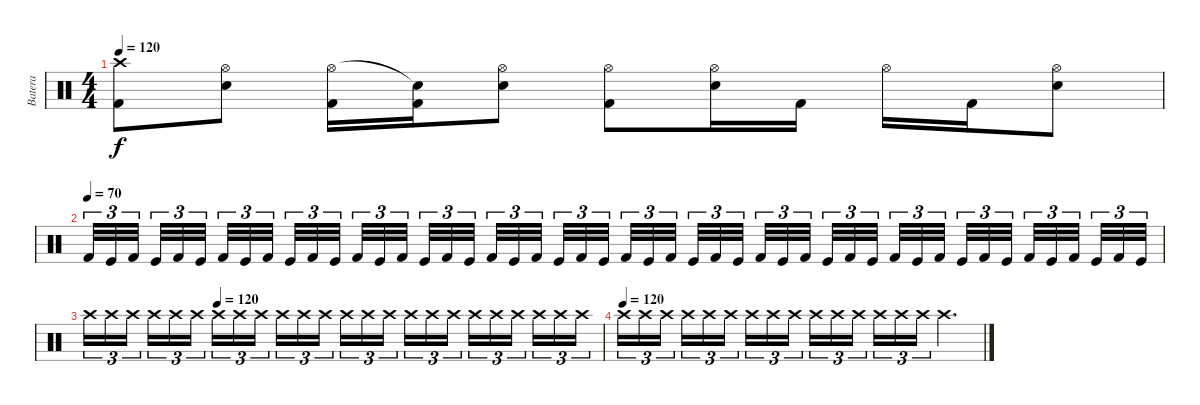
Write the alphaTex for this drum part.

\track ("Batera" "Batera") {instrument percussion}
\staff {score}
\articulation defaults
\ts (4 4)
\tempo 120
\clef neutral
\ks c
("Crash high (hit)" "Kick (hit) 2").8{dy f} ("Hi-Hat (open)" "Electric Snare (hit)").8 ("Hi-Hat (open)" "Kick (hit) 2").16 ("Snare (hit)"{t} "Kick (hit) 2").16 ("Hi-Hat (open)" "Electric Snare (hit)").8 ("Hi-Hat (open)" "Kick (hit) 2").8 ("Hi-Hat (open)" "Electric Snare (hit)").16 "Kick (hit) 2".16 "Hi-Hat (open)".16 "Kick (hit) 2".16 ("Hi-Hat (open)" "Electric Snare (hit)").8 |
\tempo (70)
"Kick (hit) 2".32{tu (3 2)} "Kick (hit)".32{tu (3 2)} "Kick (hit) 2".32{tu (3 2) beam splitsecondary} "Kick (hit)".32{tu (3 2)} "Kick (hit) 2".32{tu (3 2)} "Kick (hit)".32{tu (3 2) beam splitsecondary} "Kick (hit) 2".32{tu (3 2)} "Kick (hit)".32{tu (3 2)} "Kick (hit) 2".32{tu (3 2) beam splitsecondary} "Kick (hit)".32{tu (3 2)} "Kick (hit) 2".32{tu (3 2)} "Kick (hit)".32{tu (3 2)} "Kick (hit) 2".32{tu (3 2)} "Kick (hit)".32{tu (3 2)} "Kick (hit) 2".32{tu (3 2) beam splitsecondary} "Kick (hit)".32{tu (3 2)} "Kick (hit) 2".32{tu (3 2)} "Kick (hit)".32{tu (3 2) beam splitsecondary} "Kick (hit) 2".32{tu (3 2)} "Kick (hit)".32{tu (3 2)} "Kick (hit) 2".32{tu (3 2) beam splitsecondary} "Kick (hit)".32{tu (3 2)} "Kick (hit) 2".32{tu (3 2)} "Kick (hit)".32{tu (3 2)} "Kick (hit) 2".32{tu (3 2)} "Kick (hit)".32{tu (3 2)} "Kick (hit) 2".32{tu (3 2) beam splitsecondary} "Kick (hit)".32{tu (3 2)} "Kick (hit) 2".32{tu (3 2)} "Kick (hit)".32{tu (3 2) beam splitsecondary} "Kick (hit) 2".32{tu (3 2)} "Kick (hit)".32{tu (3 2)} "Kick (hit) 2".32{tu (3 2) beam splitsecondary} "Kick (hit)".32{tu (3 2)} "Kick (hit) 2".32{tu (3 2)} "Kick (hit)".32{tu (3 2)} "Kick (hit) 2".32{tu (3 2)} "Kick (hit)".32{tu (3 2)} "Kick (hit) 2".32{tu (3 2) beam splitsecondary} "Kick (hit)".32{tu (3 2)} "Kick (hit) 2".32{tu (3 2)} "Kick (hit)".32{tu (3 2) beam splitsecondary} "Kick (hit) 2".32{tu (3 2)} "Kick (hit)".32{tu (3 2)} "Kick (hit) 2".32{tu (3 2) beam splitsecondary} "Kick (hit)".32{tu (3 2)} "Kick (hit) 2".32{tu (3 2)} "Kick (hit)".32{tu (3 2)} |
\tempo (120 0.25)
"Crash high (hit)".16{tu (3 2)} "Crash high (hit)".16{tu (3 2)} "Crash high (hit)".16{tu (3 2) beam splitsecondary} "Crash high (hit)".16{tu (3 2)} "Crash high (hit)".16{tu (3 2)} "Crash high (hit)".16{tu (3 2)} "Crash high (hit)".16{tu (3 2)} "Crash high (hit)".16{tu (3 2)} "Crash high (hit)".16{tu (3 2) beam splitsecondary} "Crash high (hit)".16{tu (3 2)} "Crash high (hit)".16{tu (3 2)} "Crash high (hit)".16{tu (3 2)} "Crash high (hit)".16{tu (3 2)} "Crash high (hit)".16{tu (3 2)} "Crash high (hit)".16{tu (3 2) beam splitsecondary} "Crash high (hit)".16{tu (3 2)} "Crash high (hit)".16{tu (3 2)} "Crash high (hit)".16{tu (3 2)} "Crash high (hit)".16{tu (3 2)} "Crash high (hit)".16{tu (3 2)} "Crash high (hit)".16{tu (3 2) beam splitsecondary} "Crash high (hit)".16{tu (3 2)} "Crash high (hit)".16{tu (3 2)} "Crash high (hit)".16{tu (3 2)} |
\tempo (120)
"Crash high (hit)".16{tu (3 2)} "Crash high (hit)".16{tu (3 2)} "Crash high (hit)".16{tu (3 2) beam splitsecondary} "Crash high (hit)".16{tu (3 2)} "Crash high (hit)".16{tu (3 2)} "Crash high (hit)".16{tu (3 2)} "Crash high (hit)".16{tu (3 2)} "Crash high (hit)".16{tu (3 2)} "Crash high (hit)".16{tu (3 2) beam splitsecondary} "Crash high (hit)".16{tu (3 2)} "Crash high (hit)".16{tu (3 2)} "Crash high (hit)".16{tu (3 2)} "Crash high (hit)".16{tu (3 2)} "Crash high (hit)".16{tu (3 2)} "Crash high (hit)".16{tu (3 2)} "Crash high (hit)".4{d}
